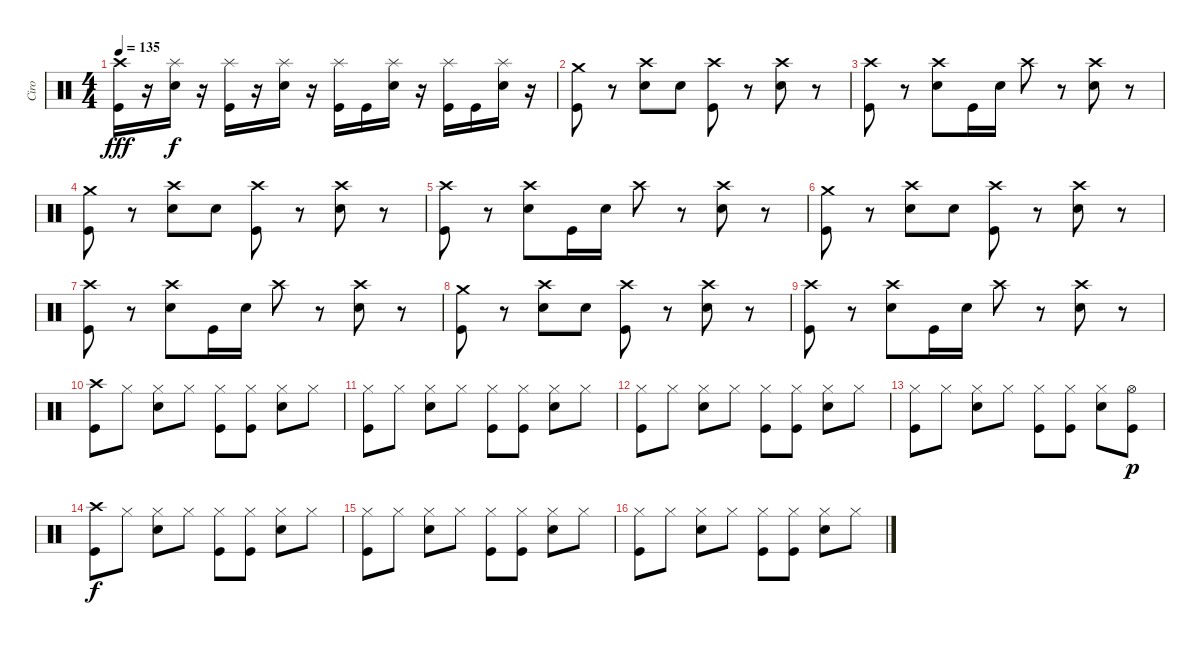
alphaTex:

\track ("Ciro" "Ciro") {instrument percussion}
\staff {score}
\articulation defaults
\ts (4 4)
\tempo 135
\clef neutral
\ks c
("Crash high (hit)" "Kick (hit)").16{dy fff} r.16 ("Splash (hit)" "Electric Snare (hit)").16{dy f} r.16 ("Splash (hit)" "Kick (hit)").16 r.16 ("Splash (hit)" "Electric Snare (hit)").16 r.16 ("Splash (hit)" "Kick (hit)").16 "Kick (hit)".16 ("Splash (hit)" "Electric Snare (hit)").16 r.16 ("Splash (hit)" "Kick (hit)").16 "Kick (hit)".16 ("Splash (hit)" "Electric Snare (hit)").16 r.16 |
("Crash medium (hit)" "Kick (hit)").8 r.8 ("Crash high (hit)" "Electric Snare (hit)").8 "Electric Snare (hit)".8 ("Crash high (hit)" "Kick (hit)").8 r.8 ("Crash high (hit)" "Electric Snare (hit)").8 r.8 |
("Crash high (hit)" "Kick (hit)").8 r.8 ("Crash high (hit)" "Electric Snare (hit)").8 "Kick (hit)".16 "Electric Snare (hit)".16 "Crash high (hit)".8 r.8 ("Crash high (hit)" "Electric Snare (hit)").8 r.8 |
("Crash medium (hit)" "Kick (hit)").8 r.8 ("Crash high (hit)" "Electric Snare (hit)").8 "Electric Snare (hit)".8 ("Crash high (hit)" "Kick (hit)").8 r.8 ("Crash high (hit)" "Electric Snare (hit)").8 r.8 |
("Crash high (hit)" "Kick (hit)").8 r.8 ("Crash high (hit)" "Electric Snare (hit)").8 "Kick (hit)".16 "Electric Snare (hit)".16 "Crash high (hit)".8 r.8 ("Crash high (hit)" "Electric Snare (hit)").8 r.8 |
("Crash medium (hit)" "Kick (hit)").8 r.8 ("Crash high (hit)" "Electric Snare (hit)").8 "Electric Snare (hit)".8 ("Crash high (hit)" "Kick (hit)").8 r.8 ("Crash high (hit)" "Electric Snare (hit)").8 r.8 |
("Crash high (hit)" "Kick (hit)").8 r.8 ("Crash high (hit)" "Electric Snare (hit)").8 "Kick (hit)".16 "Electric Snare (hit)".16 "Crash high (hit)".8 r.8 ("Crash high (hit)" "Electric Snare (hit)").8 r.8 |
("Crash medium (hit)" "Kick (hit)").8 r.8 ("Crash high (hit)" "Electric Snare (hit)").8 "Electric Snare (hit)".8 ("Crash high (hit)" "Kick (hit)").8 r.8 ("Crash high (hit)" "Electric Snare (hit)").8 r.8 |
("Crash high (hit)" "Kick (hit)").8 r.8 ("Crash high (hit)" "Electric Snare (hit)").8 "Kick (hit)".16 "Electric Snare (hit)".16 "Crash high (hit)".8 r.8 ("Crash high (hit)" "Electric Snare (hit)").8 r.8 |
("Crash high (hit)" "Kick (hit)").8 "Hi-Hat (closed)".8 ("Hi-Hat (closed)" "Electric Snare (hit)").8 "Hi-Hat (closed)".8 ("Hi-Hat (closed)" "Kick (hit)").8 ("Hi-Hat (closed)" "Kick (hit)").8 ("Hi-Hat (closed)" "Electric Snare (hit)").8 "Hi-Hat (closed)".8 |
("Hi-Hat (closed)" "Kick (hit)").8 "Hi-Hat (closed)".8 ("Hi-Hat (closed)" "Electric Snare (hit)").8 "Hi-Hat (closed)".8 ("Hi-Hat (closed)" "Kick (hit)").8 ("Hi-Hat (closed)" "Kick (hit)").8 ("Hi-Hat (closed)" "Electric Snare (hit)").8 "Hi-Hat (closed)".8 |
("Hi-Hat (closed)" "Kick (hit)").8 "Hi-Hat (closed)".8 ("Hi-Hat (closed)" "Electric Snare (hit)").8 "Hi-Hat (closed)".8 ("Hi-Hat (closed)" "Kick (hit)").8 ("Hi-Hat (closed)" "Kick (hit)").8 ("Hi-Hat (closed)" "Electric Snare (hit)").8 "Hi-Hat (closed)".8 |
("Hi-Hat (closed)" "Kick (hit)").8 "Hi-Hat (closed)".8 ("Hi-Hat (closed)" "Electric Snare (hit)").8 "Hi-Hat (closed)".8 ("Hi-Hat (closed)" "Kick (hit)").8 ("Hi-Hat (closed)" "Kick (hit)").8 ("Hi-Hat (closed)" "Electric Snare (hit)").8 ("Hi-Hat (open)" "Kick (hit)").8{dy p} |
("Crash high (hit)" "Kick (hit)").8{dy f} "Hi-Hat (closed)".8 ("Hi-Hat (closed)" "Electric Snare (hit)").8 "Hi-Hat (closed)".8 ("Hi-Hat (closed)" "Kick (hit)").8 ("Hi-Hat (closed)" "Kick (hit)").8 ("Hi-Hat (closed)" "Electric Snare (hit)").8 "Hi-Hat (closed)".8 |
("Hi-Hat (closed)" "Kick (hit)").8 "Hi-Hat (closed)".8 ("Hi-Hat (closed)" "Electric Snare (hit)").8 "Hi-Hat (closed)".8 ("Hi-Hat (closed)" "Kick (hit)").8 ("Hi-Hat (closed)" "Kick (hit)").8 ("Hi-Hat (closed)" "Electric Snare (hit)").8 "Hi-Hat (closed)".8 |
("Hi-Hat (closed)" "Kick (hit)").8 "Hi-Hat (closed)".8 ("Hi-Hat (closed)" "Electric Snare (hit)").8 "Hi-Hat (closed)".8 ("Hi-Hat (closed)" "Kick (hit)").8 ("Hi-Hat (closed)" "Kick (hit)").8 ("Hi-Hat (closed)" "Electric Snare (hit)").8 "Hi-Hat (closed)".8
